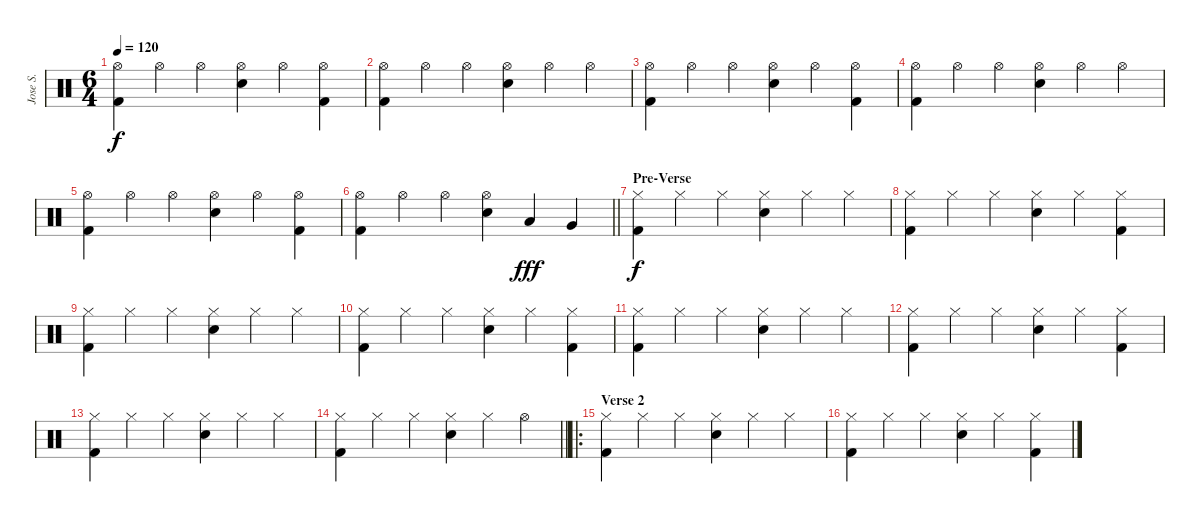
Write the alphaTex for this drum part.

\track ("Jose S." "Jose S.") {instrument percussion}
\staff {score}
\articulation defaults
\ts (6 4)
\tempo 120
\clef neutral
\ks c
("Hi-Hat (open)" "Kick (hit) 2").4{dy f} "Hi-Hat (open)".4 "Hi-Hat (open)".4 ("Hi-Hat (open)" "Snare (hit) 2").4 "Hi-Hat (open)".4 ("Hi-Hat (open)" "Kick (hit) 2").4 |
("Hi-Hat (open)" "Kick (hit) 2").4 "Hi-Hat (open)".4 "Hi-Hat (open)".4 ("Hi-Hat (open)" "Snare (hit) 2").4 "Hi-Hat (open)".4 "Hi-Hat (open)".4 |
("Hi-Hat (open)" "Kick (hit) 2").4 "Hi-Hat (open)".4 "Hi-Hat (open)".4 ("Hi-Hat (open)" "Snare (hit) 2").4 "Hi-Hat (open)".4 ("Hi-Hat (open)" "Kick (hit) 2").4 |
("Hi-Hat (open)" "Kick (hit) 2").4 "Hi-Hat (open)".4 "Hi-Hat (open)".4 ("Hi-Hat (open)" "Snare (hit) 2").4 "Hi-Hat (open)".4 "Hi-Hat (open)".4 |
("Hi-Hat (open)" "Kick (hit) 2").4 "Hi-Hat (open)".4 "Hi-Hat (open)".4 ("Hi-Hat (open)" "Snare (hit) 2").4 "Hi-Hat (open)".4 ("Hi-Hat (open)" "Kick (hit) 2").4 |
\barLineRight lightlight
("Hi-Hat (open)" "Kick (hit) 2").4 "Hi-Hat (open)".4 "Hi-Hat (open)".4 ("Hi-Hat (open)" "Snare (hit) 2").4 "Low Tom (hit)".4{dy fff} "Very Low Tom (hit)".4 |
\section ("" "Pre-Verse")
("Hi-Hat (closed)" "Kick (hit) 2").4{dy f volume 13} "Hi-Hat (closed)".4 "Hi-Hat (closed)".4 ("Hi-Hat (closed)" "Snare (hit) 2").4 "Hi-Hat (closed)".4 "Hi-Hat (closed)".4 |
("Hi-Hat (closed)" "Kick (hit) 2").4 "Hi-Hat (closed)".4 "Hi-Hat (closed)".4 ("Hi-Hat (closed)" "Snare (hit) 2").4 "Hi-Hat (closed)".4 ("Hi-Hat (closed)" "Kick (hit) 2").4 |
("Hi-Hat (closed)" "Kick (hit) 2").4 "Hi-Hat (closed)".4 "Hi-Hat (closed)".4 ("Hi-Hat (closed)" "Snare (hit) 2").4 "Hi-Hat (closed)".4 "Hi-Hat (closed)".4 |
("Hi-Hat (closed)" "Kick (hit) 2").4 "Hi-Hat (closed)".4 "Hi-Hat (closed)".4 ("Hi-Hat (closed)" "Snare (hit) 2").4 "Hi-Hat (closed)".4 ("Hi-Hat (closed)" "Kick (hit) 2").4 |
("Hi-Hat (closed)" "Kick (hit) 2").4 "Hi-Hat (closed)".4 "Hi-Hat (closed)".4 ("Hi-Hat (closed)" "Snare (hit) 2").4 "Hi-Hat (closed)".4 "Hi-Hat (closed)".4 |
("Hi-Hat (closed)" "Kick (hit) 2").4 "Hi-Hat (closed)".4 "Hi-Hat (closed)".4 ("Hi-Hat (closed)" "Snare (hit) 2").4 "Hi-Hat (closed)".4 ("Hi-Hat (closed)" "Kick (hit) 2").4 |
("Hi-Hat (closed)" "Kick (hit) 2").4 "Hi-Hat (closed)".4 "Hi-Hat (closed)".4 ("Hi-Hat (closed)" "Snare (hit) 2").4 "Hi-Hat (closed)".4 "Hi-Hat (closed)".4 |
\barLineRight lightlight
("Hi-Hat (closed)" "Kick (hit) 2").4 "Hi-Hat (closed)".4 "Hi-Hat (closed)".4 ("Hi-Hat (closed)" "Snare (hit) 2").4 "Hi-Hat (closed)".4 "Hi-Hat (open)".4 |
\ro
\section ("" "Verse 2")
("Hi-Hat (closed)" "Kick (hit) 2").4{volume 13} "Hi-Hat (closed)".4 "Hi-Hat (closed)".4 ("Hi-Hat (closed)" "Snare (hit) 2").4 "Hi-Hat (closed)".4 "Hi-Hat (closed)".4 |
("Hi-Hat (closed)" "Kick (hit) 2").4 "Hi-Hat (closed)".4 "Hi-Hat (closed)".4 ("Hi-Hat (closed)" "Snare (hit) 2").4 "Hi-Hat (closed)".4 ("Hi-Hat (closed)" "Kick (hit) 2").4
